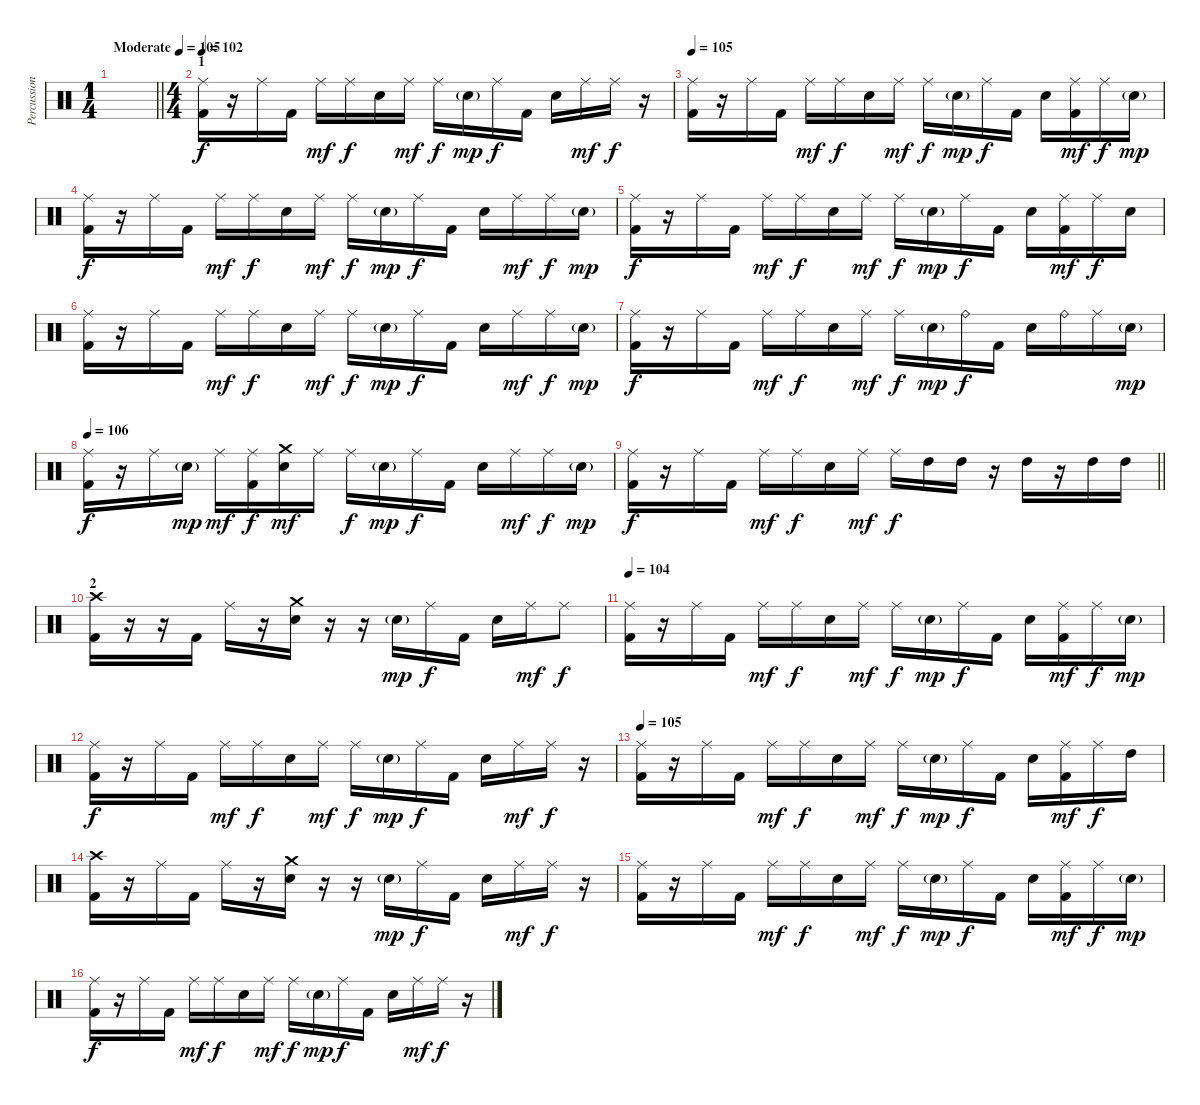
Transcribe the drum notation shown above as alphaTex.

\track ("Percussion" "Percussion") {instrument percussion}
\staff {score}
\articulation defaults
\ts (1 4)
\tempo (105 "Moderate")
\clef neutral
\barLineRight lightlight
\ks c
|
\ts (4 4)
\section ("" "1")
\tempo 102
("Ride (middle)" "Kick (hit) 2").16 r.16 "Ride (middle)".16 "Kick (hit) 2".16 "Ride (middle)".16{dy mf} "Ride (middle)".16{dy f} "Snare (hit) 2".16 "Ride (middle)".16{dy mf} "Ride (middle)".16{dy f} "Snare (hit) 2"{g}.16{dy mp} "Ride (middle)".16{dy f} "Kick (hit) 2".16 "Snare (hit) 2".16 "Ride (middle)".16{dy mf} "Ride (middle)".16{dy f} r.16 |
\tempo 105
("Ride (middle)" "Kick (hit) 2").16 r.16 "Ride (middle)".16 "Kick (hit) 2".16 "Ride (middle)".16{dy mf} "Ride (middle)".16{dy f} "Snare (hit) 2".16 "Ride (middle)".16{dy mf} "Ride (middle)".16{dy f} "Snare (hit) 2"{g}.16{dy mp} "Ride (middle)".16{dy f} "Kick (hit) 2".16 "Snare (hit) 2".16 ("Ride (middle)" "Kick (hit) 2").16{dy mf} "Ride (middle)".16{dy f} "Snare (hit) 2"{g}.16{dy mp} |
("Ride (middle)" "Kick (hit) 2").16{dy f} r.16 "Ride (middle)".16 "Kick (hit) 2".16 "Ride (middle)".16{dy mf} "Ride (middle)".16{dy f} "Snare (hit) 2".16 "Ride (middle)".16{dy mf} "Ride (middle)".16{dy f} "Snare (hit) 2"{g}.16{dy mp} "Ride (middle)".16{dy f} "Kick (hit) 2".16 "Snare (hit) 2".16 "Ride (middle)".16{dy mf} "Ride (middle)".16{dy f} "Snare (hit) 2"{g}.16{dy mp} |
("Ride (middle)" "Kick (hit) 2").16{dy f} r.16 "Ride (middle)".16 "Kick (hit) 2".16 "Ride (middle)".16{dy mf} "Ride (middle)".16{dy f} "Snare (hit) 2".16 "Ride (middle)".16{dy mf} "Ride (middle)".16{dy f} "Snare (hit) 2"{g}.16{dy mp} "Ride (middle)".16{dy f} "Kick (hit) 2".16 "Snare (hit) 2".16 ("Ride (middle)" "Kick (hit) 2").16{dy mf} "Ride (middle)".16{dy f} "Snare (hit) 2".16 |
("Ride (middle)" "Kick (hit) 2").16 r.16 "Ride (middle)".16 "Kick (hit) 2".16 "Ride (middle)".16{dy mf} "Ride (middle)".16{dy f} "Snare (hit) 2".16 "Ride (middle)".16{dy mf} "Ride (middle)".16{dy f} "Snare (hit) 2"{g}.16{dy mp} "Ride (middle)".16{dy f} "Kick (hit) 2".16 "Snare (hit) 2".16 "Ride (middle)".16{dy mf} "Ride (middle)".16{dy f} "Snare (hit) 2"{g}.16{dy mp} |
("Ride (middle)" "Kick (hit) 2").16{dy f} r.16 "Ride (middle)".16 "Kick (hit) 2".16 "Ride (middle)".16{dy mf} "Ride (middle)".16{dy f} "Snare (hit) 2".16 "Ride (middle)".16{dy mf} "Ride (middle)".16{dy f} "Snare (hit) 2"{g}.16{dy mp} "Ride (bell)".16{dy f} "Kick (hit) 2".16 "Snare (hit) 2".16 "Ride (bell)".16 "Ride (middle)".16 "Snare (hit) 2"{g}.16{dy mp} |
\tempo 106
("Ride (middle)" "Kick (hit) 2").16{dy f} r.16 "Ride (middle)".16 "Snare (hit) 2"{g}.16{dy mp} "Ride (middle)".16{dy mf} ("Ride (middle)" "Kick (hit) 2").16{dy f} ("Crash medium (hit)" "Snare (hit) 2").16{dy mf} "Ride (middle)".16 "Ride (middle)".16{dy f} "Snare (hit) 2"{g}.16{dy mp} "Ride (middle)".16{dy f} "Kick (hit) 2".16 "Snare (hit) 2".16 "Ride (middle)".16{dy mf} "Ride (middle)".16{dy f} "Snare (hit) 2"{g}.16{dy mp} |
\barLineRight lightlight
("Ride (middle)" "Kick (hit) 2").16{dy f} r.16 "Ride (middle)".16 "Kick (hit) 2".16 "Ride (middle)".16{dy mf} "Ride (middle)".16{dy f} "Snare (hit) 2".16 "Ride (middle)".16{dy mf} "Ride (middle)".16{dy f} "High Tom (hit)".16 "High Tom (hit)".16 r.16 "High Tom (hit)".16 r.16 "High Tom (hit)".16 "High Tom (hit)".16 |
\section ("" "2")
("Crash high (hit)" "Kick (hit) 2").16 r.16 r.16 "Kick (hit) 2".16 "Ride (middle)".16 r.16 ("Crash medium (hit)" "Snare (hit) 2").16 r.16 r.16 "Snare (hit) 2"{g}.16{dy mp} "Ride (middle)".16{dy f} "Kick (hit) 2".16 "Snare (hit) 2".16 "Ride (middle)".16{dy mf} "Ride (middle)".8{dy f} |
\tempo 104
("Ride (middle)" "Kick (hit) 2").16 r.16 "Ride (middle)".16 "Kick (hit) 2".16 "Ride (middle)".16{dy mf} "Ride (middle)".16{dy f} "Snare (hit) 2".16 "Ride (middle)".16{dy mf} "Ride (middle)".16{dy f} "Snare (hit) 2"{g}.16{dy mp} "Ride (middle)".16{dy f} "Kick (hit) 2".16 "Snare (hit) 2".16 ("Ride (middle)" "Kick (hit) 2").16{dy mf} "Ride (middle)".16{dy f} "Snare (hit) 2"{g}.16{dy mp} |
("Ride (middle)" "Kick (hit) 2").16{dy f} r.16 "Ride (middle)".16 "Kick (hit) 2".16 "Ride (middle)".16{dy mf} "Ride (middle)".16{dy f} "Snare (hit) 2".16 "Ride (middle)".16{dy mf} "Ride (middle)".16{dy f} "Snare (hit) 2"{g}.16{dy mp} "Ride (middle)".16{dy f} "Kick (hit) 2".16 "Snare (hit) 2".16 "Ride (middle)".16{dy mf} "Ride (middle)".16{dy f} r.16 |
\tempo 105
("Ride (middle)" "Kick (hit) 2").16 r.16 "Ride (middle)".16 "Kick (hit) 2".16 "Ride (middle)".16{dy mf} "Ride (middle)".16{dy f} "Snare (hit) 2".16 "Ride (middle)".16{dy mf} "Ride (middle)".16{dy f} "Snare (hit) 2"{g}.16{dy mp} "Ride (middle)".16{dy f} "Kick (hit) 2".16 "Snare (hit) 2".16 ("Ride (middle)" "Kick (hit) 2").16{dy mf} "Ride (middle)".16{dy f} "High Tom (hit)".16 |
("Crash high (hit)" "Kick (hit) 2").16 r.16 "Ride (middle)".16 "Kick (hit) 2".16 "Ride (middle)".16 r.16 ("Crash medium (hit)" "Snare (hit) 2").16 r.16 r.16 "Snare (hit) 2"{g}.16{dy mp} "Ride (middle)".16{dy f} "Kick (hit) 2".16 "Snare (hit) 2".16 "Ride (middle)".16{dy mf} "Ride (middle)".16{dy f} r.16 |
("Ride (middle)" "Kick (hit) 2").16 r.16 "Ride (middle)".16 "Kick (hit) 2".16 "Ride (middle)".16{dy mf} "Ride (middle)".16{dy f} "Snare (hit) 2".16 "Ride (middle)".16{dy mf} "Ride (middle)".16{dy f} "Snare (hit) 2"{g}.16{dy mp} "Ride (middle)".16{dy f} "Kick (hit) 2".16 "Snare (hit) 2".16 ("Ride (middle)" "Kick (hit) 2").16{dy mf} "Ride (middle)".16{dy f} "Snare (hit) 2"{g}.16{dy mp} |
("Ride (middle)" "Kick (hit) 2").16{dy f} r.16 "Ride (middle)".16 "Kick (hit) 2".16 "Ride (middle)".16{dy mf} "Ride (middle)".16{dy f} "Snare (hit) 2".16 "Ride (middle)".16{dy mf} "Ride (middle)".16{dy f} "Snare (hit) 2"{g}.16{dy mp} "Ride (middle)".16{dy f} "Kick (hit) 2".16 "Snare (hit) 2".16 "Ride (middle)".16{dy mf} "Ride (middle)".16{dy f} r.16
